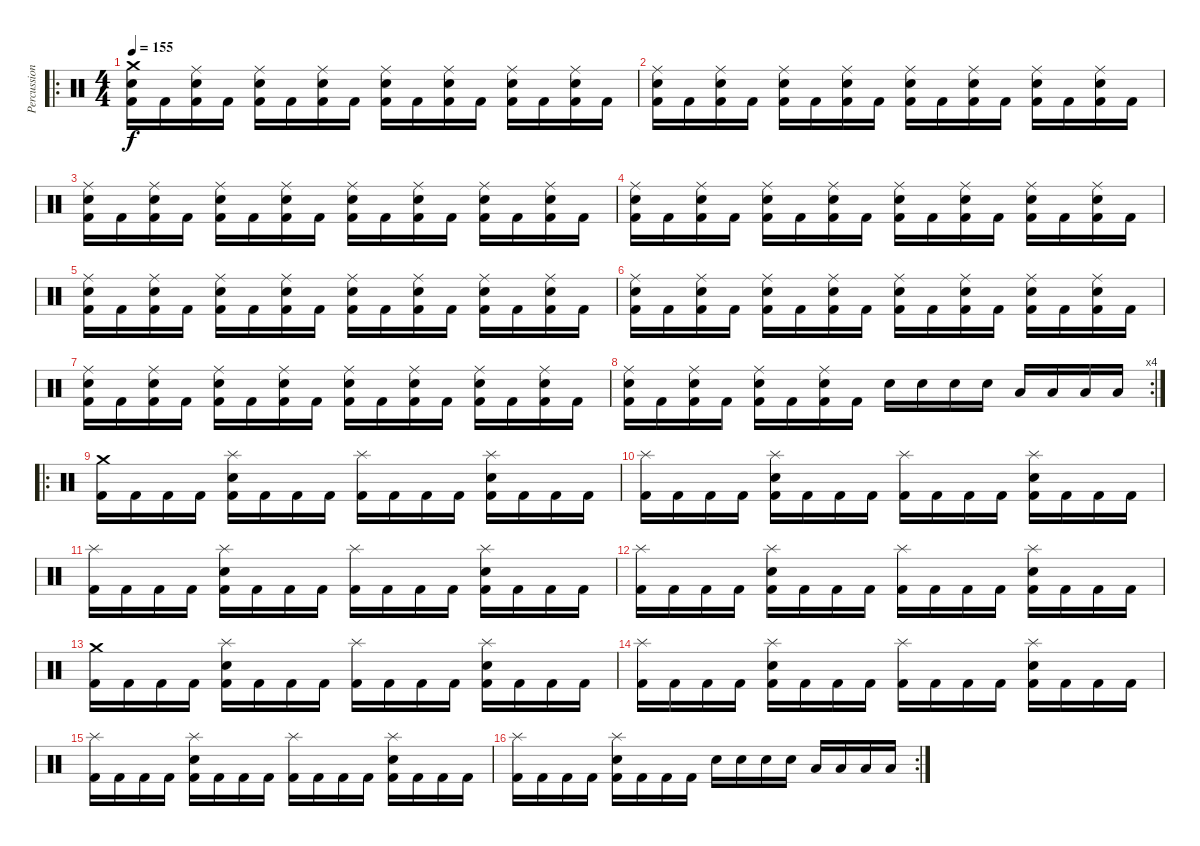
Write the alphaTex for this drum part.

\track ("Percussions" "Percussion") {instrument percussion}
\staff {score}
\articulation defaults
\ro
\ts (4 4)
\tempo 155
\clef neutral
\ks c
("Crash medium (hit)" "Snare (hit) 2" "Kick (hit) 2").16{dy f} "Kick (hit) 2".16 ("Ride (middle)" "Snare (hit) 2" "Kick (hit) 2").16 "Kick (hit) 2".16 ("Ride (middle)" "Snare (hit) 2" "Kick (hit) 2").16 "Kick (hit) 2".16 ("Ride (middle)" "Snare (hit) 2" "Kick (hit) 2").16 "Kick (hit) 2".16 ("Ride (middle)" "Snare (hit) 2" "Kick (hit) 2").16 "Kick (hit) 2".16 ("Ride (middle)" "Snare (hit) 2" "Kick (hit) 2").16 "Kick (hit) 2".16 ("Ride (middle)" "Snare (hit) 2" "Kick (hit) 2").16 "Kick (hit) 2".16 ("Ride (middle)" "Snare (hit) 2" "Kick (hit) 2").16 "Kick (hit) 2".16 |
("Ride (middle)" "Snare (hit) 2" "Kick (hit) 2").16 "Kick (hit) 2".16 ("Ride (middle)" "Snare (hit) 2" "Kick (hit) 2").16 "Kick (hit) 2".16 ("Ride (middle)" "Snare (hit) 2" "Kick (hit) 2").16 "Kick (hit) 2".16 ("Ride (middle)" "Snare (hit) 2" "Kick (hit) 2").16 "Kick (hit) 2".16 ("Ride (middle)" "Snare (hit) 2" "Kick (hit) 2").16 "Kick (hit) 2".16 ("Ride (middle)" "Snare (hit) 2" "Kick (hit) 2").16 "Kick (hit) 2".16 ("Ride (middle)" "Snare (hit) 2" "Kick (hit) 2").16 "Kick (hit) 2".16 ("Ride (middle)" "Snare (hit) 2" "Kick (hit) 2").16 "Kick (hit) 2".16 |
("Ride (middle)" "Snare (hit) 2" "Kick (hit) 2").16 "Kick (hit) 2".16 ("Ride (middle)" "Snare (hit) 2" "Kick (hit) 2").16 "Kick (hit) 2".16 ("Ride (middle)" "Snare (hit) 2" "Kick (hit) 2").16 "Kick (hit) 2".16 ("Ride (middle)" "Snare (hit) 2" "Kick (hit) 2").16 "Kick (hit) 2".16 ("Ride (middle)" "Snare (hit) 2" "Kick (hit) 2").16 "Kick (hit) 2".16 ("Ride (middle)" "Snare (hit) 2" "Kick (hit) 2").16 "Kick (hit) 2".16 ("Ride (middle)" "Snare (hit) 2" "Kick (hit) 2").16 "Kick (hit) 2".16 ("Ride (middle)" "Snare (hit) 2" "Kick (hit) 2").16 "Kick (hit) 2".16 |
("Ride (middle)" "Snare (hit) 2" "Kick (hit) 2").16 "Kick (hit) 2".16 ("Ride (middle)" "Snare (hit) 2" "Kick (hit) 2").16 "Kick (hit) 2".16 ("Ride (middle)" "Snare (hit) 2" "Kick (hit) 2").16 "Kick (hit) 2".16 ("Ride (middle)" "Snare (hit) 2" "Kick (hit) 2").16 "Kick (hit) 2".16 ("Ride (middle)" "Snare (hit) 2" "Kick (hit) 2").16 "Kick (hit) 2".16 ("Ride (middle)" "Snare (hit) 2" "Kick (hit) 2").16 "Kick (hit) 2".16 ("Ride (middle)" "Snare (hit) 2" "Kick (hit) 2").16 "Kick (hit) 2".16 ("Ride (middle)" "Snare (hit) 2" "Kick (hit) 2").16 "Kick (hit) 2".16 |
("Ride (middle)" "Snare (hit) 2" "Kick (hit) 2").16 "Kick (hit) 2".16 ("Ride (middle)" "Snare (hit) 2" "Kick (hit) 2").16 "Kick (hit) 2".16 ("Ride (middle)" "Snare (hit) 2" "Kick (hit) 2").16 "Kick (hit) 2".16 ("Ride (middle)" "Snare (hit) 2" "Kick (hit) 2").16 "Kick (hit) 2".16 ("Ride (middle)" "Snare (hit) 2" "Kick (hit) 2").16 "Kick (hit) 2".16 ("Ride (middle)" "Snare (hit) 2" "Kick (hit) 2").16 "Kick (hit) 2".16 ("Ride (middle)" "Snare (hit) 2" "Kick (hit) 2").16 "Kick (hit) 2".16 ("Ride (middle)" "Snare (hit) 2" "Kick (hit) 2").16 "Kick (hit) 2".16 |
("Ride (middle)" "Snare (hit) 2" "Kick (hit) 2").16 "Kick (hit) 2".16 ("Ride (middle)" "Snare (hit) 2" "Kick (hit) 2").16 "Kick (hit) 2".16 ("Ride (middle)" "Snare (hit) 2" "Kick (hit) 2").16 "Kick (hit) 2".16 ("Ride (middle)" "Snare (hit) 2" "Kick (hit) 2").16 "Kick (hit) 2".16 ("Ride (middle)" "Snare (hit) 2" "Kick (hit) 2").16 "Kick (hit) 2".16 ("Ride (middle)" "Snare (hit) 2" "Kick (hit) 2").16 "Kick (hit) 2".16 ("Ride (middle)" "Snare (hit) 2" "Kick (hit) 2").16 "Kick (hit) 2".16 ("Ride (middle)" "Snare (hit) 2" "Kick (hit) 2").16 "Kick (hit) 2".16 |
("Ride (middle)" "Snare (hit) 2" "Kick (hit) 2").16 "Kick (hit) 2".16 ("Ride (middle)" "Snare (hit) 2" "Kick (hit) 2").16 "Kick (hit) 2".16 ("Ride (middle)" "Snare (hit) 2" "Kick (hit) 2").16 "Kick (hit) 2".16 ("Ride (middle)" "Snare (hit) 2" "Kick (hit) 2").16 "Kick (hit) 2".16 ("Ride (middle)" "Snare (hit) 2" "Kick (hit) 2").16 "Kick (hit) 2".16 ("Ride (middle)" "Snare (hit) 2" "Kick (hit) 2").16 "Kick (hit) 2".16 ("Ride (middle)" "Snare (hit) 2" "Kick (hit) 2").16 "Kick (hit) 2".16 ("Ride (middle)" "Snare (hit) 2" "Kick (hit) 2").16 "Kick (hit) 2".16 |
\rc 4
("Ride (middle)" "Snare (hit) 2" "Kick (hit) 2").16 "Kick (hit) 2".16 ("Ride (middle)" "Snare (hit) 2" "Kick (hit) 2").16 "Kick (hit) 2".16 ("Ride (middle)" "Snare (hit) 2" "Kick (hit) 2").16 "Kick (hit) 2".16 ("Ride (middle)" "Snare (hit) 2" "Kick (hit) 2").16 "Kick (hit) 2".16 "Snare (hit) 2".16 "Snare (hit) 2".16 "Snare (hit) 2".16 "Snare (hit) 2".16 "Low Tom (hit)".16 "Low Tom (hit)".16 "Low Tom (hit)".16 "Low Tom (hit)".16 |
\ro
("Crash medium (hit)" "Kick (hit) 2").16 "Kick (hit) 2".16 "Kick (hit) 2".16 "Kick (hit) 2".16 ("Splash (hit)" "Snare (hit) 2" "Kick (hit) 2").16 "Kick (hit) 2".16 "Kick (hit) 2".16 "Kick (hit) 2".16 ("Splash (hit)" "Kick (hit) 2").16 "Kick (hit) 2".16 "Kick (hit) 2".16 "Kick (hit) 2".16 ("Splash (hit)" "Snare (hit) 2" "Kick (hit) 2").16 "Kick (hit) 2".16 "Kick (hit) 2".16 "Kick (hit) 2".16 |
("Splash (hit)" "Kick (hit) 2").16 "Kick (hit) 2".16 "Kick (hit) 2".16 "Kick (hit) 2".16 ("Splash (hit)" "Snare (hit) 2" "Kick (hit) 2").16 "Kick (hit) 2".16 "Kick (hit) 2".16 "Kick (hit) 2".16 ("Splash (hit)" "Kick (hit) 2").16 "Kick (hit) 2".16 "Kick (hit) 2".16 "Kick (hit) 2".16 ("Splash (hit)" "Snare (hit) 2" "Kick (hit) 2").16 "Kick (hit) 2".16 "Kick (hit) 2".16 "Kick (hit) 2".16 |
("Splash (hit)" "Kick (hit) 2").16 "Kick (hit) 2".16 "Kick (hit) 2".16 "Kick (hit) 2".16 ("Splash (hit)" "Snare (hit) 2" "Kick (hit) 2").16 "Kick (hit) 2".16 "Kick (hit) 2".16 "Kick (hit) 2".16 ("Splash (hit)" "Kick (hit) 2").16 "Kick (hit) 2".16 "Kick (hit) 2".16 "Kick (hit) 2".16 ("Splash (hit)" "Snare (hit) 2" "Kick (hit) 2").16 "Kick (hit) 2".16 "Kick (hit) 2".16 "Kick (hit) 2".16 |
("Splash (hit)" "Kick (hit) 2").16 "Kick (hit) 2".16 "Kick (hit) 2".16 "Kick (hit) 2".16 ("Splash (hit)" "Snare (hit) 2" "Kick (hit) 2").16 "Kick (hit) 2".16 "Kick (hit) 2".16 "Kick (hit) 2".16 ("Splash (hit)" "Kick (hit) 2").16 "Kick (hit) 2".16 "Kick (hit) 2".16 "Kick (hit) 2".16 ("Splash (hit)" "Snare (hit) 2" "Kick (hit) 2").16 "Kick (hit) 2".16 "Kick (hit) 2".16 "Kick (hit) 2".16 |
("Crash medium (hit)" "Kick (hit) 2").16 "Kick (hit) 2".16 "Kick (hit) 2".16 "Kick (hit) 2".16 ("Splash (hit)" "Snare (hit) 2" "Kick (hit) 2").16 "Kick (hit) 2".16 "Kick (hit) 2".16 "Kick (hit) 2".16 ("Splash (hit)" "Kick (hit) 2").16 "Kick (hit) 2".16 "Kick (hit) 2".16 "Kick (hit) 2".16 ("Splash (hit)" "Snare (hit) 2" "Kick (hit) 2").16 "Kick (hit) 2".16 "Kick (hit) 2".16 "Kick (hit) 2".16 |
("Splash (hit)" "Kick (hit) 2").16 "Kick (hit) 2".16 "Kick (hit) 2".16 "Kick (hit) 2".16 ("Splash (hit)" "Snare (hit) 2" "Kick (hit) 2").16 "Kick (hit) 2".16 "Kick (hit) 2".16 "Kick (hit) 2".16 ("Splash (hit)" "Kick (hit) 2").16 "Kick (hit) 2".16 "Kick (hit) 2".16 "Kick (hit) 2".16 ("Splash (hit)" "Snare (hit) 2" "Kick (hit) 2").16 "Kick (hit) 2".16 "Kick (hit) 2".16 "Kick (hit) 2".16 |
("Splash (hit)" "Kick (hit) 2").16 "Kick (hit) 2".16 "Kick (hit) 2".16 "Kick (hit) 2".16 ("Splash (hit)" "Snare (hit) 2" "Kick (hit) 2").16 "Kick (hit) 2".16 "Kick (hit) 2".16 "Kick (hit) 2".16 ("Splash (hit)" "Kick (hit) 2").16 "Kick (hit) 2".16 "Kick (hit) 2".16 "Kick (hit) 2".16 ("Splash (hit)" "Snare (hit) 2" "Kick (hit) 2").16 "Kick (hit) 2".16 "Kick (hit) 2".16 "Kick (hit) 2".16 |
\rc 2
("Splash (hit)" "Kick (hit) 2").16 "Kick (hit) 2".16 "Kick (hit) 2".16 "Kick (hit) 2".16 ("Splash (hit)" "Snare (hit) 2" "Kick (hit) 2").16 "Kick (hit) 2".16 "Kick (hit) 2".16 "Kick (hit) 2".16 "Snare (hit) 2".16 "Snare (hit) 2".16 "Snare (hit) 2".16 "Snare (hit) 2".16 "Low Tom (hit)".16 "Low Tom (hit)".16 "Low Tom (hit)".16 "Low Tom (hit)".16
